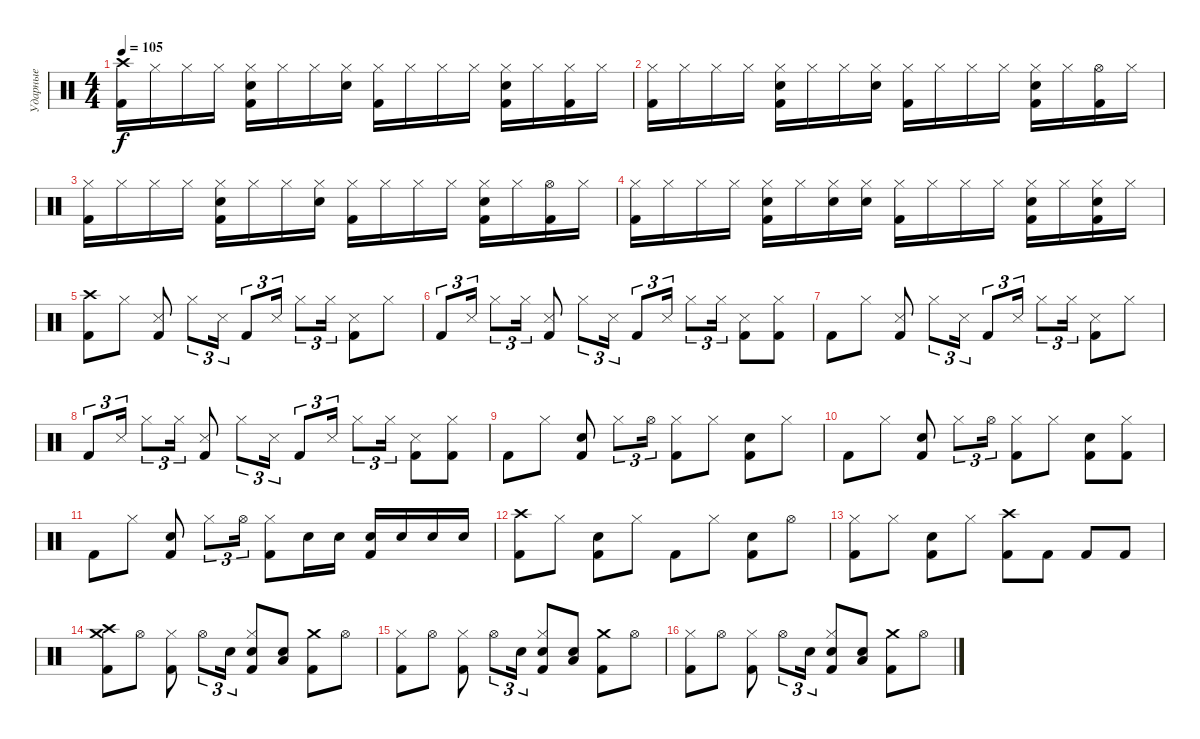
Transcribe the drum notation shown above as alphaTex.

\track ("Ударные" "Ударные") {instrument percussion}
\staff {score}
\articulation defaults
\ts (4 4)
\tempo 105
\clef neutral
\ks c
("Crash high (hit)" "Kick (hit) 2").16{dy f} "Hi-Hat (closed)".16 "Hi-Hat (closed)".16 "Hi-Hat (closed)".16 ("Hi-Hat (closed)" "Electric Snare (hit)" "Kick (hit) 2").16 "Hi-Hat (closed)".16 "Hi-Hat (closed)".16 ("Hi-Hat (closed)" "Electric Snare (hit)").16 ("Hi-Hat (closed)" "Kick (hit) 2").16 "Hi-Hat (closed)".16 "Hi-Hat (closed)".16 "Hi-Hat (closed)".16 ("Hi-Hat (closed)" "Electric Snare (hit)" "Kick (hit) 2").16 "Hi-Hat (closed)".16 ("Hi-Hat (closed)" "Kick (hit) 2").16 "Hi-Hat (closed)".16 |
("Hi-Hat (closed)" "Kick (hit) 2").16 "Hi-Hat (closed)".16 "Hi-Hat (closed)".16 "Hi-Hat (closed)".16 ("Hi-Hat (closed)" "Electric Snare (hit)" "Kick (hit) 2").16 "Hi-Hat (closed)".16 "Hi-Hat (closed)".16 ("Hi-Hat (closed)" "Electric Snare (hit)").16 ("Hi-Hat (closed)" "Kick (hit) 2").16 "Hi-Hat (closed)".16 "Hi-Hat (closed)".16 "Hi-Hat (closed)".16 ("Hi-Hat (closed)" "Electric Snare (hit)" "Kick (hit) 2").16 "Hi-Hat (closed)".16 ("Hi-Hat (open)" "Kick (hit) 2").16 "Hi-Hat (closed)".16 |
("Hi-Hat (closed)" "Kick (hit) 2").16 "Hi-Hat (closed)".16 "Hi-Hat (closed)".16 "Hi-Hat (closed)".16 ("Hi-Hat (closed)" "Electric Snare (hit)" "Kick (hit) 2").16 "Hi-Hat (closed)".16 "Hi-Hat (closed)".16 ("Hi-Hat (closed)" "Electric Snare (hit)").16 ("Hi-Hat (closed)" "Kick (hit) 2").16 "Hi-Hat (closed)".16 "Hi-Hat (closed)".16 "Hi-Hat (closed)".16 ("Hi-Hat (closed)" "Electric Snare (hit)" "Kick (hit) 2").16 "Hi-Hat (closed)".16 ("Hi-Hat (open)" "Kick (hit) 2").16 "Hi-Hat (closed)".16 |
("Hi-Hat (closed)" "Kick (hit) 2").16 "Hi-Hat (closed)".16 "Hi-Hat (closed)".16 "Hi-Hat (closed)".16 ("Hi-Hat (closed)" "Electric Snare (hit)" "Kick (hit) 2").16 "Hi-Hat (closed)".16 ("Hi-Hat (closed)" "Electric Snare (hit)").16 ("Hi-Hat (closed)" "Electric Snare (hit)").16 ("Hi-Hat (closed)" "Kick (hit) 2").16 "Hi-Hat (closed)".16 "Hi-Hat (closed)".16 "Hi-Hat (closed)".16 ("Hi-Hat (closed)" "Electric Snare (hit)" "Kick (hit) 2").16 "Hi-Hat (closed)".16 ("Hi-Hat (closed)" "Electric Snare (hit)" "Kick (hit) 2").16 "Hi-Hat (closed)".16 |
("Kick (hit) 2" "Crash high (hit)").8 "Hi-Hat (closed)".8 ("Kick (hit) 2" "Snare (side stick) 3").8 "Hi-Hat (closed)".8{tu (3 2)} "Snare (side stick) 3".16{tu (3 2)} "Kick (hit) 2".8{tu (3 2)} "Snare (side stick) 3".16{tu (3 2)} "Hi-Hat (closed)".8{tu (3 2)} "Hi-Hat (closed)".16{tu (3 2)} ("Kick (hit) 2" "Snare (side stick) 3").8 "Hi-Hat (closed)".8 |
"Kick (hit) 2".8{tu (3 2)} "Snare (side stick) 3".16{tu (3 2)} "Hi-Hat (closed)".8{tu (3 2)} "Hi-Hat (closed)".16{tu (3 2)} ("Kick (hit) 2" "Snare (side stick) 3").8 "Hi-Hat (closed)".8{tu (3 2)} "Snare (side stick) 3".16{tu (3 2)} "Kick (hit) 2".8{tu (3 2)} "Snare (side stick) 3".16{tu (3 2)} "Hi-Hat (closed)".8{tu (3 2)} "Hi-Hat (closed)".16{tu (3 2)} ("Kick (hit) 2" "Snare (side stick) 3").8 ("Hi-Hat (closed)" "Kick (hit) 2").8 |
"Kick (hit) 2".8 "Hi-Hat (closed)".8 ("Kick (hit) 2" "Snare (side stick) 3").8 "Hi-Hat (closed)".8{tu (3 2)} "Snare (side stick) 3".16{tu (3 2)} "Kick (hit) 2".8{tu (3 2)} "Snare (side stick) 3".16{tu (3 2)} "Hi-Hat (closed)".8{tu (3 2)} "Hi-Hat (closed)".16{tu (3 2)} ("Kick (hit) 2" "Snare (side stick) 3").8 "Hi-Hat (closed)".8 |
"Kick (hit) 2".8{tu (3 2)} "Snare (side stick) 3".16{tu (3 2)} "Hi-Hat (closed)".8{tu (3 2)} "Hi-Hat (closed)".16{tu (3 2)} ("Kick (hit) 2" "Snare (side stick) 3").8 "Hi-Hat (closed)".8{tu (3 2)} "Snare (side stick) 3".16{tu (3 2)} "Kick (hit) 2".8{tu (3 2)} "Snare (side stick) 3".16{tu (3 2)} "Hi-Hat (closed)".8{tu (3 2)} "Hi-Hat (closed)".16{tu (3 2)} ("Kick (hit) 2" "Snare (side stick) 3").8 ("Hi-Hat (closed)" "Kick (hit) 2").8 |
"Kick (hit) 2".8 "Hi-Hat (closed)".8 ("Kick (hit) 2" "Electric Snare (hit)").8 "Hi-Hat (closed)".8{tu (3 2)} "Hi-Hat (open)".16{tu (3 2)} ("Hi-Hat (closed)" "Kick (hit) 2").8 "Hi-Hat (closed)".8 ("Kick (hit) 2" "Electric Snare (hit)").8 "Hi-Hat (closed)".8 |
"Kick (hit) 2".8 "Hi-Hat (closed)".8 ("Kick (hit) 2" "Electric Snare (hit)").8 "Hi-Hat (closed)".8{tu (3 2)} "Hi-Hat (open)".16{tu (3 2)} ("Hi-Hat (closed)" "Kick (hit) 2").8 "Hi-Hat (closed)".8 ("Kick (hit) 2" "Electric Snare (hit)").8 ("Hi-Hat (closed)" "Kick (hit) 2").8 |
"Kick (hit) 2".8 "Hi-Hat (closed)".8 ("Kick (hit) 2" "Electric Snare (hit)").8 "Hi-Hat (closed)".8{tu (3 2)} "Hi-Hat (open)".16{tu (3 2)} ("Hi-Hat (closed)" "Kick (hit) 2").8 "Electric Snare (hit)".16 "Electric Snare (hit)".16 ("Electric Snare (hit)" "Kick (hit) 2").16 "Electric Snare (hit)".16 "Electric Snare (hit)".16 "Electric Snare (hit)".16 |
("Crash high (hit)" "Kick (hit) 2").8 "Hi-Hat (closed)".8 ("Electric Snare (hit)" "Kick (hit) 2").8 "Hi-Hat (closed)".8 "Kick (hit) 2".8 "Hi-Hat (closed)".8 ("Electric Snare (hit)" "Kick (hit) 2").8 "Hi-Hat (open)".8 |
("Hi-Hat (closed)" "Kick (hit) 2").8 "Hi-Hat (closed)".8 ("Electric Snare (hit)" "Kick (hit) 2").8 "Hi-Hat (closed)".8 ("Crash high (hit)" "Kick (hit) 2").8 "Kick (hit) 2".8 "Kick (hit) 2".8 "Kick (hit) 2".8 |
("Crash high (hit)" "Kick (hit) 2" "Crash medium (hit)").8 "Hi-Hat (open)".8 ("Hi-Hat (closed)" "Kick (hit) 2").8 "Hi-Hat (open)".8{tu (3 2)} "Electric Snare (hit)".16{tu (3 2)} ("Hi-Hat (closed)" "Electric Snare (hit)" "Kick (hit) 2").8 ("Electric Snare (hit)" "Low Floor Tom (hit)").8 ("Crash medium (hit)" "Kick (hit) 2").8 "Hi-Hat (open)".8 |
("Hi-Hat (closed)" "Kick (hit) 2").8 "Hi-Hat (open)".8 ("Hi-Hat (closed)" "Kick (hit) 2").8 "Hi-Hat (open)".8{tu (3 2)} "Electric Snare (hit)".16{tu (3 2)} ("Hi-Hat (closed)" "Electric Snare (hit)" "Kick (hit) 2").8 ("Electric Snare (hit)" "Low Floor Tom (hit)").8 ("Crash medium (hit)" "Kick (hit) 2").8 "Hi-Hat (open)".8 |
("Hi-Hat (closed)" "Kick (hit) 2").8 "Hi-Hat (open)".8 ("Hi-Hat (closed)" "Kick (hit) 2").8 "Hi-Hat (open)".8{tu (3 2)} "Electric Snare (hit)".16{tu (3 2)} ("Hi-Hat (closed)" "Electric Snare (hit)" "Kick (hit) 2").8 ("Electric Snare (hit)" "Low Floor Tom (hit)").8 ("Crash medium (hit)" "Kick (hit) 2").8 "Hi-Hat (open)".8
